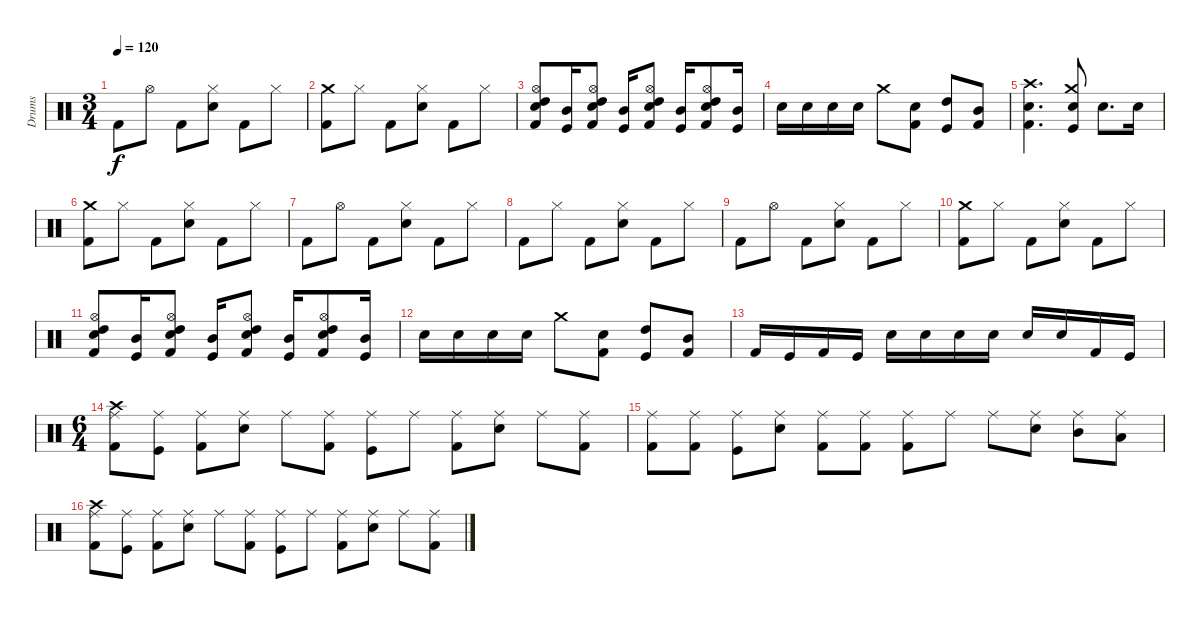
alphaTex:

\track ("Drums" "Drums") {instrument percussion}
\staff {score}
\articulation defaults
\ts (3 4)
\tempo 120
\clef neutral
\ks c "Kick (hit) 2".8{dy f} "Hi-Hat (open)".8 "Kick (hit) 2".8
("Hi-Hat (closed)" "Electric Snare (hit)").8 "Kick (hit) 2".8 "Hi-Hat (closed)".8 |
("Crash medium (hit)" "Kick (hit) 2").8 "Hi-Hat (closed)".8 "Kick (hit) 2".8 ("Hi-Hat (closed)" "Electric Snare (hit)").8 "Kick (hit) 2".8 "Hi-Hat (closed)".8 |
("Hi-Hat (open)" "High Tom (hit)" "Electric Snare (hit)" "Kick (hit) 2").8 ("Mid Tom (hit)" "Kick (hit)").16 ("Hi-Hat (open)" "High Tom (hit)" "Electric Snare (hit)" "Kick (hit) 2").8 ("Mid Tom (hit)" "Kick (hit)").16 ("Hi-Hat (open)" "High Tom (hit)" "Electric Snare (hit)" "Kick (hit) 2").8 ("Mid Tom (hit)" "Kick (hit)").16 ("Hi-Hat (open)" "High Tom (hit)" "Electric Snare (hit)" "Kick (hit) 2").8 ("Mid Tom (hit)" "Kick (hit)").16 |
"Electric Snare (hit)".16 "Electric Snare (hit)".16 "Electric Snare (hit)".16 "Electric Snare (hit)".16 "Crash medium (hit)".8 ("Electric Snare (hit)" "Kick (hit) 2").8 ("High Tom (hit)" "Kick (hit)").8 ("Mid Tom (hit)" "Kick (hit) 2").8 |
("Crash high (hit)" "Electric Snare (hit)" "Kick (hit) 2").4{d} ("Crash medium (hit)" "Electric Snare (hit)" "Kick (hit)").8 "Electric Snare (hit)".8{d} "Electric Snare (hit)".16 |
("Crash medium (hit)" "Kick (hit) 2").8 "Hi-Hat (closed)".8 "Kick (hit) 2".8 ("Hi-Hat (closed)" "Electric Snare (hit)").8 "Kick (hit) 2".8 "Hi-Hat (closed)".8 |
"Kick (hit) 2".8 "Hi-Hat (open)".8 "Kick (hit) 2".8 ("Hi-Hat (closed)" "Electric Snare (hit)").8 "Kick (hit) 2".8 "Hi-Hat (closed)".8 |
"Kick (hit) 2".8 "Hi-Hat (closed)".8 "Kick (hit) 2".8 ("Hi-Hat (closed)" "Electric Snare (hit)").8 "Kick (hit) 2".8 "Hi-Hat (closed)".8 |
"Kick (hit) 2".8 "Hi-Hat (open)".8 "Kick (hit) 2".8 ("Hi-Hat (closed)" "Electric Snare (hit)").8 "Kick (hit) 2".8 "Hi-Hat (closed)".8 |
("Crash medium (hit)" "Kick (hit) 2").8 "Hi-Hat (closed)".8 "Kick (hit) 2".8 ("Hi-Hat (closed)" "Electric Snare (hit)").8 "Kick (hit) 2".8 "Hi-Hat (closed)".8 |
("Hi-Hat (open)" "High Tom (hit)" "Electric Snare (hit)" "Kick (hit) 2").8 ("Mid Tom (hit)" "Kick (hit)").16 ("Hi-Hat (open)" "High Tom (hit)" "Electric Snare (hit)" "Kick (hit) 2").8 ("Mid Tom (hit)" "Kick (hit)").16 ("Hi-Hat (open)" "High Tom (hit)" "Electric Snare (hit)" "Kick (hit) 2").8 ("Mid Tom (hit)" "Kick (hit)").16 ("Hi-Hat (open)" "High Tom (hit)" "Electric Snare (hit)" "Kick (hit) 2").8 ("Mid Tom (hit)" "Kick (hit)").16 |
"Electric Snare (hit)".16 "Electric Snare (hit)".16 "Electric Snare (hit)".16 "Electric Snare (hit)".16 "Crash medium (hit)".8 ("Electric Snare (hit)" "Kick (hit) 2").8 ("High Tom (hit)" "Kick (hit)").8 ("Mid Tom (hit)" "Kick (hit) 2").8 |
"Kick (hit) 2".16 "Kick (hit)".16 "Kick (hit) 2".16 "Kick (hit)".16 "Electric Snare (hit)".16 "Electric Snare (hit)".16 "Electric Snare (hit)".16 "Electric Snare (hit)".16 "Electric Snare (hit)".16 "Electric Snare (hit)".16 "Kick (hit) 2".16 "Kick (hit)".16 |
\ts (6 4)
("Crash high (hit)" "Ride (middle)" "Kick (hit) 2").8 ("Ride (middle)" "Kick (hit)").8 ("Ride (middle)" "Kick (hit) 2").8 ("Ride (middle)" "Electric Snare (hit)").8 "Ride (middle)".8 ("Ride (middle)" "Kick (hit) 2").8 ("Ride (middle)" "Kick (hit)").8 "Ride (middle)".8 ("Ride (middle)" "Kick (hit) 2").8 ("Ride (middle)" "Electric Snare (hit)").8 "Ride (middle)".8 ("Ride (middle)" "Kick (hit) 2").8 |
("Ride (middle)" "Kick (hit) 2").8 ("Ride (middle)" "Kick (hit) 2").8 ("Ride (middle)" "Kick (hit)").8 ("Ride (middle)" "Electric Snare (hit)").8 ("Ride (middle)" "Kick (hit) 2").8 ("Ride (middle)" "Kick (hit) 2").8 ("Ride (middle)" "Kick (hit) 2").8 "Ride (middle)".8 "Ride (middle)".8 ("Ride (middle)" "Electric Snare (hit)").8 ("Ride (middle)" "Mid Tom (hit)").8 ("Ride (middle)" "Low Tom (hit)").8 |
("Crash high (hit)" "Ride (middle)" "Kick (hit) 2").8 ("Ride (middle)" "Kick (hit)").8 ("Ride (middle)" "Kick (hit) 2").8 ("Ride (middle)" "Electric Snare (hit)").8 "Ride (middle)".8 ("Ride (middle)" "Kick (hit) 2").8 ("Ride (middle)" "Kick (hit)").8 "Ride (middle)".8 ("Ride (middle)" "Kick (hit) 2").8 ("Ride (middle)" "Electric Snare (hit)").8 "Ride (middle)".8 ("Ride (middle)" "Kick (hit) 2").8
